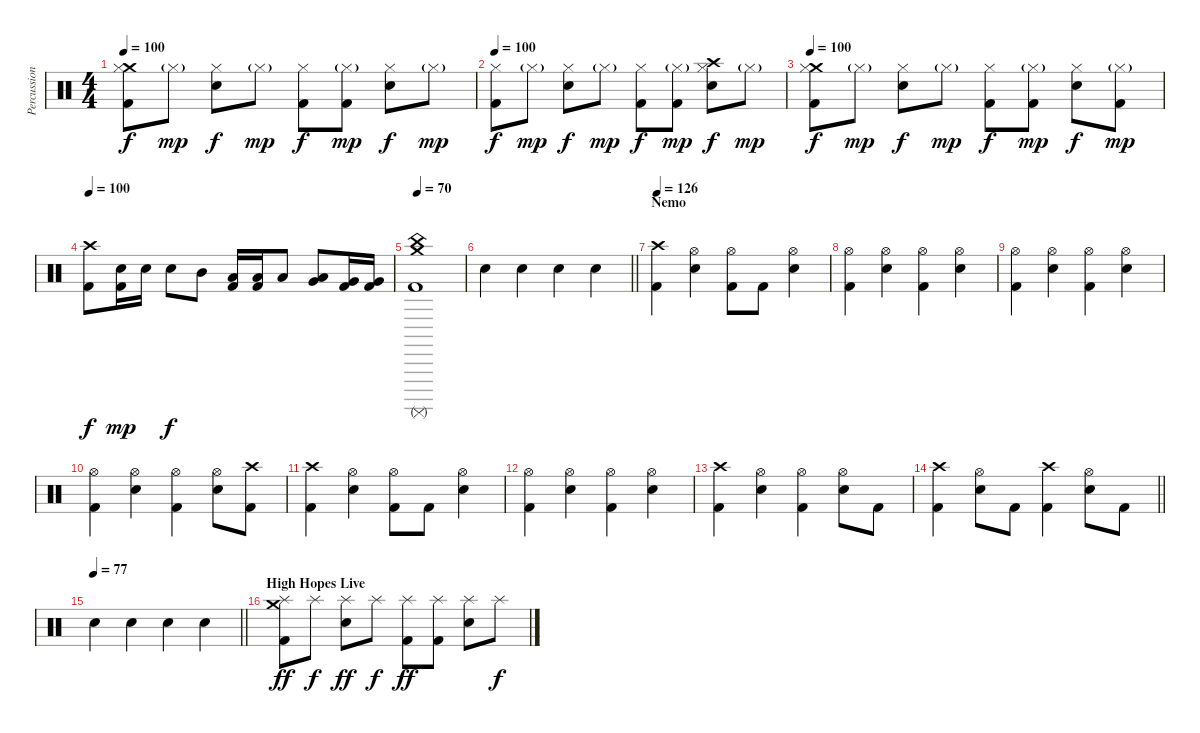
\track ("Percussion" "Percussion") {instrument percussion}
\staff {score}
\articulation defaults
\ts (4 4)
\tempo 100
\clef neutral
\ks c
("Crash medium (hit)" "Hi-Hat (closed)" "Kick (hit) 2").8{dy f} "Hi-Hat (closed)"{g}.8{dy mp} ("Electric Snare (hit)" "Hi-Hat (closed)").8{dy f} "Hi-Hat (closed)"{g}.8{dy mp} ("Hi-Hat (closed)" "Kick (hit) 2").8{dy f} ("Hi-Hat (closed)"{g} "Kick (hit) 2").8{dy mp} ("Electric Snare (hit)" "Hi-Hat (closed)").8{dy f} "Hi-Hat (closed)"{g}.8{dy mp} |
\tempo 100
("Hi-Hat (closed)" "Kick (hit) 2").8{dy f} "Hi-Hat (closed)"{g}.8{dy mp} ("Electric Snare (hit)" "Hi-Hat (closed)").8{dy f} "Hi-Hat (closed)"{g}.8{dy mp} ("Hi-Hat (closed)" "Kick (hit) 2").8{dy f} ("Hi-Hat (closed)"{g} "Kick (hit) 2").8{dy mp} ("Crash high (hit)" "Electric Snare (hit)" "Hi-Hat (closed)").8{dy f} "Hi-Hat (closed)"{g}.8{dy mp} |
\tempo 100
("Crash medium (hit)" "Hi-Hat (closed)" "Kick (hit) 2").8{dy f} "Hi-Hat (closed)"{g}.8{dy mp} ("Electric Snare (hit)" "Hi-Hat (closed)").8{dy f} "Hi-Hat (closed)"{g}.8{dy mp} ("Hi-Hat (closed)" "Kick (hit) 2").8{dy f} ("Hi-Hat (closed)"{g} "Kick (hit) 2").8{dy mp} ("Electric Snare (hit)" "Hi-Hat (closed)").8{dy f} ("Hi-Hat (closed)"{g} "Kick (hit) 2").8{dy mp} |
\tempo 100
("Crash high (hit)" "Kick (hit) 2").8{dy f} ("Electric Snare (hit)" "Kick (hit) 2").16{dy mp} "Electric Snare (hit)".16 "Electric Snare (hit)".8{dy f} "Mid Tom (hit)".8 ("Low Tom (hit)" "Kick (hit) 2").16 ("Low Tom (hit)" "Kick (hit) 2").16 "Low Tom (hit)".8 ("Low Tom (hit)" "Very Low Tom (hit)").8 ("Very Low Tom (hit)" "Kick (hit) 2").16 ("Very Low Tom (hit)" "Kick (hit) 2").16 |
\tempo 70
("Crash medium (hit)" "China (hit)" "Surdo (mute)" "Kick (hit) 2").1 |
\barLineRight lightlight "Electric Snare (hit)".4 "Electric Snare (hit)".4 "Electric Snare (hit)".4 "Electric Snare (hit)".4
|
\section ("" "Nemo")
\tempo 126
("Crash high (hit)" "Kick (hit) 2").4 ("Hi-Hat (open)" "Electric Snare (hit)").4 ("Hi-Hat (open)" "Kick (hit) 2").8 "Kick (hit) 2".8 ("Hi-Hat (open)" "Electric Snare (hit)").4 |
("Hi-Hat (open)" "Kick (hit) 2").4 ("Hi-Hat (open)" "Electric Snare (hit)").4 ("Hi-Hat (open)" "Kick (hit) 2").4 ("Hi-Hat (open)" "Electric Snare (hit)").4 |
("Hi-Hat (open)" "Kick (hit) 2").4 ("Hi-Hat (open)" "Electric Snare (hit)").4 ("Hi-Hat (open)" "Kick (hit) 2").4 ("Hi-Hat (open)" "Electric Snare (hit)").4 |
("Hi-Hat (open)" "Kick (hit) 2").4 ("Hi-Hat (open)" "Electric Snare (hit)").4 ("Hi-Hat (open)" "Kick (hit) 2").4 ("Hi-Hat (open)" "Electric Snare (hit)").8 ("Crash high (hit)" "Kick (hit) 2").8 |
("Crash high (hit)" "Kick (hit) 2").4 ("Hi-Hat (open)" "Electric Snare (hit)").4 ("Hi-Hat (open)" "Kick (hit) 2").8 "Kick (hit) 2".8 ("Hi-Hat (open)" "Electric Snare (hit)").4 |
("Hi-Hat (open)" "Kick (hit) 2").4 ("Hi-Hat (open)" "Electric Snare (hit)").4 ("Hi-Hat (open)" "Kick (hit) 2").4 ("Hi-Hat (open)" "Electric Snare (hit)").4 |
("Crash high (hit)" "Kick (hit) 2").4 ("Hi-Hat (open)" "Electric Snare (hit)").4 ("Hi-Hat (open)" "Kick (hit) 2").4 ("Hi-Hat (open)" "Electric Snare (hit)").8 "Kick (hit) 2".8 |
\barLineRight lightlight
("Crash high (hit)" "Kick (hit) 2").4 ("Hi-Hat (open)" "Electric Snare (hit)").8 "Kick (hit) 2".8 ("Crash high (hit)" "Kick (hit) 2").4 ("Hi-Hat (open)" "Electric Snare (hit)").8 "Kick (hit) 2".8 |
\tempo 77
\barLineRight lightlight "Electric Snare (hit)".4 "Electric Snare (hit)".4 "Electric Snare (hit)".4 "Electric Snare (hit)".4
|
\section ("" "High Hopes Live")
("Crash medium (hit)" "Splash (hit)" "Kick (hit) 2").8{dy ff} "Splash (hit)".8{dy f} ("Splash (hit)" "Electric Snare (hit)").8{dy ff} "Splash (hit)".8{dy f} ("Splash (hit)" "Kick (hit) 2").8{dy ff} ("Splash (hit)" "Kick (hit) 2").8 ("Splash (hit)" "Electric Snare (hit)").8 "Splash (hit)".8{dy f}
